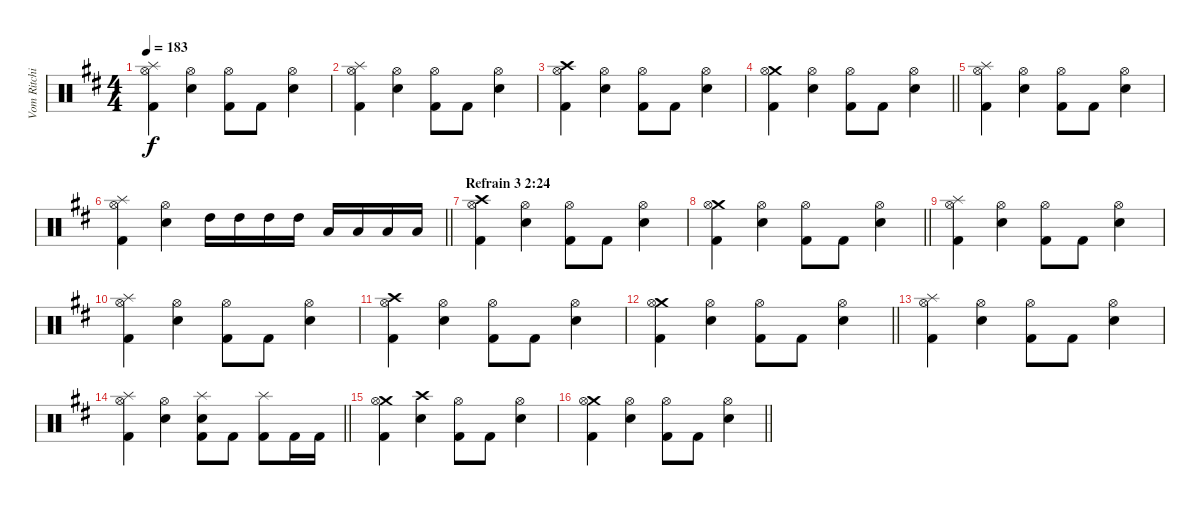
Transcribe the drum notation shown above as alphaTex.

\track ("Vom Ritchie" "Vom Ritchi") {instrument percussion}
\staff {score}
\articulation defaults
\ts (4 4)
\tempo 183
\clef neutral
\ks d
("Splash (hit)" "Hi-Hat (open)" "Kick (hit) 2").4{dy f} ("Snare (hit) 2" "Hi-Hat (open)").4 ("Hi-Hat (open)" "Kick (hit) 2").8 "Kick (hit) 2".8 ("Snare (hit) 2" "Hi-Hat (open)").4 |
("Splash (hit)" "Hi-Hat (open)" "Kick (hit) 2").4 ("Snare (hit) 2" "Hi-Hat (open)").4 ("Hi-Hat (open)" "Kick (hit) 2").8 "Kick (hit) 2".8 ("Snare (hit) 2" "Hi-Hat (open)").4 |
("Crash high (hit)" "Hi-Hat (open)" "Kick (hit) 2").4 ("Snare (hit) 2" "Hi-Hat (open)").4 ("Hi-Hat (open)" "Kick (hit) 2").8 "Kick (hit) 2".8 ("Snare (hit) 2" "Hi-Hat (open)").4 |
\barLineRight lightlight
("Crash medium (hit)" "Hi-Hat (open)" "Kick (hit) 2").4 ("Snare (hit) 2" "Hi-Hat (open)").4 ("Hi-Hat (open)" "Kick (hit) 2").8 "Kick (hit) 2".8 ("Snare (hit) 2" "Hi-Hat (open)").4 |
("Splash (hit)" "Hi-Hat (open)" "Kick (hit) 2").4 ("Snare (hit) 2" "Hi-Hat (open)").4 ("Hi-Hat (open)" "Kick (hit) 2").8 "Kick (hit) 2".8 ("Snare (hit) 2" "Hi-Hat (open)").4 |
\barLineRight lightlight
("Splash (hit)" "Hi-Hat (open)" "Kick (hit) 2").4 ("Snare (hit) 2" "Hi-Hat (open)").4 "High Tom (hit)".16 "High Tom (hit)".16 "High Tom (hit)".16 "High Tom (hit)".16 "Low Tom (hit)".16 "Low Tom (hit)".16 "Low Tom (hit)".16 "Low Tom (hit)".16 |
\section ("" "Refrain 3 2:24")
("Crash high (hit)" "Hi-Hat (open)" "Kick (hit) 2").4 ("Snare (hit) 2" "Hi-Hat (open)").4 ("Hi-Hat (open)" "Kick (hit) 2").8 "Kick (hit) 2".8 ("Snare (hit) 2" "Hi-Hat (open)").4 |
\barLineRight lightlight
("Crash medium (hit)" "Hi-Hat (open)" "Kick (hit) 2").4 ("Snare (hit) 2" "Hi-Hat (open)").4 ("Hi-Hat (open)" "Kick (hit) 2").8 "Kick (hit) 2".8 ("Snare (hit) 2" "Hi-Hat (open)").4 |
("Splash (hit)" "Hi-Hat (open)" "Kick (hit) 2").4 ("Snare (hit) 2" "Hi-Hat (open)").4 ("Hi-Hat (open)" "Kick (hit) 2").8 "Kick (hit) 2".8 ("Snare (hit) 2" "Hi-Hat (open)").4 |
("Splash (hit)" "Hi-Hat (open)" "Kick (hit) 2").4 ("Snare (hit) 2" "Hi-Hat (open)").4 ("Hi-Hat (open)" "Kick (hit) 2").8 "Kick (hit) 2".8 ("Snare (hit) 2" "Hi-Hat (open)").4 |
("Crash high (hit)" "Hi-Hat (open)" "Kick (hit) 2").4 ("Snare (hit) 2" "Hi-Hat (open)").4 ("Hi-Hat (open)" "Kick (hit) 2").8 "Kick (hit) 2".8 ("Snare (hit) 2" "Hi-Hat (open)").4 |
\barLineRight lightlight
("Crash medium (hit)" "Hi-Hat (open)" "Kick (hit) 2").4 ("Snare (hit) 2" "Hi-Hat (open)").4 ("Hi-Hat (open)" "Kick (hit) 2").8 "Kick (hit) 2".8 ("Snare (hit) 2" "Hi-Hat (open)").4 |
("Splash (hit)" "Hi-Hat (open)" "Kick (hit) 2").4 ("Snare (hit) 2" "Hi-Hat (open)").4 ("Hi-Hat (open)" "Kick (hit) 2").8 "Kick (hit) 2".8 ("Snare (hit) 2" "Hi-Hat (open)").4 |
\barLineRight lightlight
("Splash (hit)" "Hi-Hat (open)" "Kick (hit) 2").4 ("Snare (hit) 2" "Hi-Hat (open)").4 ("Snare (hit) 2" "Splash (hit)" "Kick (hit) 2").8 "Kick (hit) 2".8 ("Splash (hit)" "Kick (hit) 2").8 "Kick (hit) 2".16 "Kick (hit) 2".16 |
("Crash medium (hit)" "Hi-Hat (open)" "Kick (hit) 2").4 ("Snare (hit) 2" "Crash high (hit)").4 ("Hi-Hat (open)" "Kick (hit) 2").8 "Kick (hit) 2".8 ("Snare (hit) 2" "Hi-Hat (open)").4 |
\barLineRight lightlight
("Crash medium (hit)" "Hi-Hat (open)" "Kick (hit) 2").4 ("Snare (hit) 2" "Hi-Hat (open)").4 ("Hi-Hat (open)" "Kick (hit) 2").8 "Kick (hit) 2".8 ("Snare (hit) 2" "Hi-Hat (open)").4
